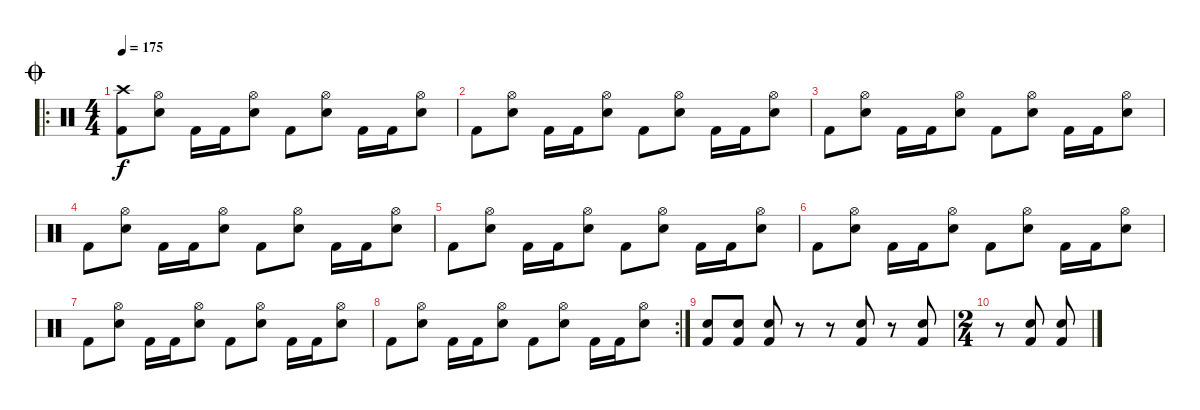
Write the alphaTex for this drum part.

\track "" {instrument percussion}
\staff {score}
\articulation defaults
\ro
\ts (4 4)
\jump coda
\tempo 175
\clef neutral
\ks c
("Crash high (hit)" "Kick (hit) 2").8{dy f} ("Hi-Hat (open)" "Electric Snare (hit)").8 "Kick (hit) 2".16 "Kick (hit) 2".16 ("Hi-Hat (open)" "Electric Snare (hit)").8 "Kick (hit) 2".8 ("Hi-Hat (open)" "Electric Snare (hit)").8 "Kick (hit) 2".16 "Kick (hit) 2".16 ("Hi-Hat (open)" "Electric Snare (hit)").8 |
"Kick (hit) 2".8 ("Hi-Hat (open)" "Electric Snare (hit)").8 "Kick (hit) 2".16 "Kick (hit) 2".16 ("Hi-Hat (open)" "Electric Snare (hit)").8 "Kick (hit) 2".8 ("Hi-Hat (open)" "Electric Snare (hit)").8 "Kick (hit) 2".16 "Kick (hit) 2".16 ("Hi-Hat (open)" "Electric Snare (hit)").8 |
"Kick (hit) 2".8 ("Hi-Hat (open)" "Electric Snare (hit)").8 "Kick (hit) 2".16 "Kick (hit) 2".16 ("Hi-Hat (open)" "Electric Snare (hit)").8 "Kick (hit) 2".8 ("Hi-Hat (open)" "Electric Snare (hit)").8 "Kick (hit) 2".16 "Kick (hit) 2".16 ("Hi-Hat (open)" "Electric Snare (hit)").8 |
"Kick (hit) 2".8 ("Hi-Hat (open)" "Electric Snare (hit)").8 "Kick (hit) 2".16 "Kick (hit) 2".16 ("Hi-Hat (open)" "Electric Snare (hit)").8 "Kick (hit) 2".8 ("Hi-Hat (open)" "Electric Snare (hit)").8 "Kick (hit) 2".16 "Kick (hit) 2".16 ("Hi-Hat (open)" "Electric Snare (hit)").8 |
"Kick (hit) 2".8 ("Hi-Hat (open)" "Electric Snare (hit)").8 "Kick (hit) 2".16 "Kick (hit) 2".16 ("Hi-Hat (open)" "Electric Snare (hit)").8 "Kick (hit) 2".8 ("Hi-Hat (open)" "Electric Snare (hit)").8 "Kick (hit) 2".16 "Kick (hit) 2".16 ("Hi-Hat (open)" "Electric Snare (hit)").8 |
"Kick (hit) 2".8 ("Hi-Hat (open)" "Electric Snare (hit)").8 "Kick (hit) 2".16 "Kick (hit) 2".16 ("Hi-Hat (open)" "Electric Snare (hit)").8 "Kick (hit) 2".8 ("Hi-Hat (open)" "Electric Snare (hit)").8 "Kick (hit) 2".16 "Kick (hit) 2".16 ("Hi-Hat (open)" "Electric Snare (hit)").8 |
"Kick (hit) 2".8 ("Hi-Hat (open)" "Electric Snare (hit)").8 "Kick (hit) 2".16 "Kick (hit) 2".16 ("Hi-Hat (open)" "Electric Snare (hit)").8 "Kick (hit) 2".8 ("Hi-Hat (open)" "Electric Snare (hit)").8 "Kick (hit) 2".16 "Kick (hit) 2".16 ("Hi-Hat (open)" "Electric Snare (hit)").8 |
\rc 2 "Kick (hit) 2".8
("Hi-Hat (open)" "Electric Snare (hit)").8 "Kick (hit) 2".16 "Kick (hit) 2".16 ("Hi-Hat (open)" "Electric Snare (hit)").8 "Kick (hit) 2".8 ("Hi-Hat (open)" "Electric Snare (hit)").8 "Kick (hit) 2".16 "Kick (hit) 2".16 ("Hi-Hat (open)" "Electric Snare (hit)").8 |
("Electric Snare (hit)" "Kick (hit) 2").8 ("Electric Snare (hit)" "Kick (hit) 2").8 ("Electric Snare (hit)" "Kick (hit) 2").8 r.8 r.8 ("Electric Snare (hit)" "Kick (hit) 2").8 r.8 ("Electric Snare (hit)" "Kick (hit) 2").8 |
\ts (2 4)
r.8 ("Electric Snare (hit)" "Kick (hit) 2").8 ("Electric Snare (hit)" "Kick (hit) 2").8
